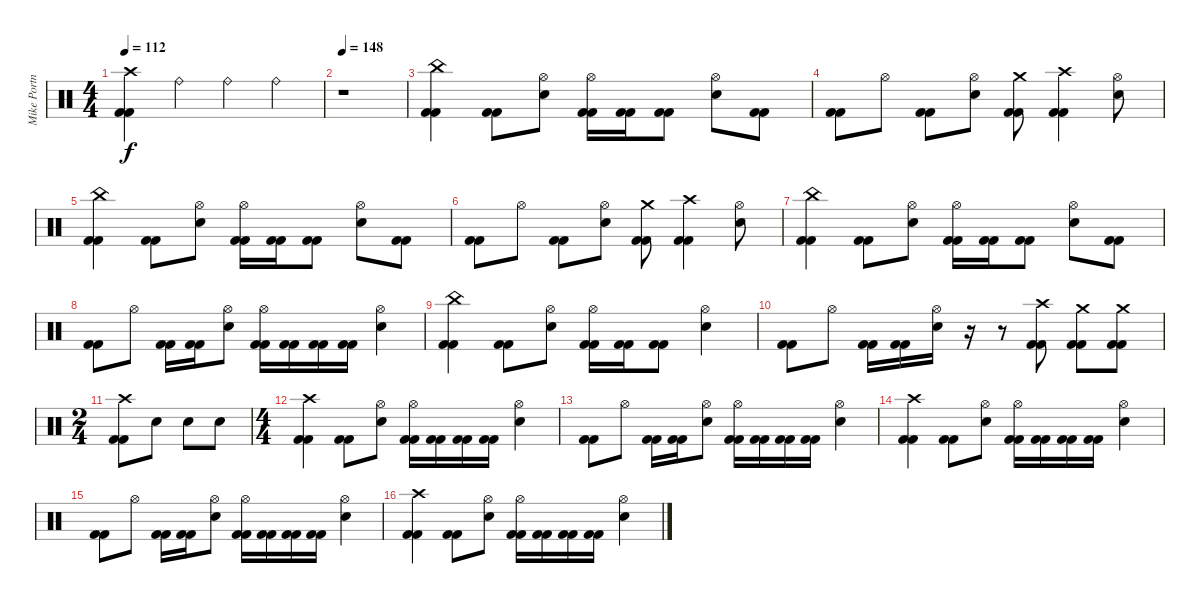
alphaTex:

\track ("Mike Portnoy - Drum" "Mike Portn") {instrument percussion}
\staff {score}
\articulation defaults
\ts (4 4)
\tempo 112
\clef neutral
\ks c
("Crash high (hit)" "Kick (hit) 2" "Kick (hit) 2").4{dy f} "Ride (bell)".4 "Ride (bell)".4 "Ride (bell)".4 |
\tempo 148
r.1 |
("China (hit)" "Kick (hit) 2" "Kick (hit) 2").4 ("Kick (hit) 2" "Kick (hit) 2").8 ("Hi-Hat (open)" "Snare (hit) 2").8 ("Hi-Hat (open)" "Kick (hit) 2" "Kick (hit) 2").16 ("Kick (hit) 2" "Kick (hit) 2").16 ("Kick (hit) 2" "Kick (hit) 2").8 ("Hi-Hat (open)" "Snare (hit) 2").8 ("Kick (hit) 2" "Kick (hit) 2").8 |
("Kick (hit) 2" "Kick (hit) 2").8 "Hi-Hat (open)".8 ("Kick (hit) 2" "Kick (hit) 2").8 ("Hi-Hat (open)" "Snare (hit) 2").8 ("Crash medium (hit)" "Kick (hit) 2" "Kick (hit) 2").8 ("Crash high (hit)" "Kick (hit) 2" "Kick (hit) 2").4 ("Hi-Hat (open)" "Snare (hit) 2").8 |
("China (hit)" "Kick (hit) 2" "Kick (hit) 2").4 ("Kick (hit) 2" "Kick (hit) 2").8 ("Hi-Hat (open)" "Snare (hit) 2").8 ("Hi-Hat (open)" "Kick (hit) 2" "Kick (hit) 2").16 ("Kick (hit) 2" "Kick (hit) 2").16 ("Kick (hit) 2" "Kick (hit) 2").8 ("Hi-Hat (open)" "Snare (hit) 2").8 ("Kick (hit) 2" "Kick (hit) 2").8 |
("Kick (hit) 2" "Kick (hit) 2").8 "Hi-Hat (open)".8 ("Kick (hit) 2" "Kick (hit) 2").8 ("Hi-Hat (open)" "Snare (hit) 2").8 ("Crash medium (hit)" "Kick (hit) 2" "Kick (hit) 2").8 ("Crash high (hit)" "Kick (hit) 2" "Kick (hit) 2").4 ("Hi-Hat (open)" "Snare (hit) 2").8 |
("China (hit)" "Kick (hit) 2" "Kick (hit) 2").4 ("Kick (hit) 2" "Kick (hit) 2").8 ("Hi-Hat (open)" "Snare (hit) 2").8 ("Hi-Hat (open)" "Kick (hit) 2" "Kick (hit) 2").16 ("Kick (hit) 2" "Kick (hit) 2").16 ("Kick (hit) 2" "Kick (hit) 2").8 ("Hi-Hat (open)" "Snare (hit) 2").8 ("Kick (hit) 2" "Kick (hit) 2").8 |
("Kick (hit) 2" "Kick (hit) 2").8 "Hi-Hat (open)".8 ("Kick (hit) 2" "Kick (hit) 2").16 ("Kick (hit) 2" "Kick (hit) 2").16 ("Hi-Hat (open)" "Snare (hit) 2").8 ("Hi-Hat (open)" "Kick (hit) 2" "Kick (hit) 2").16 ("Kick (hit) 2" "Kick (hit) 2").16 ("Kick (hit) 2" "Kick (hit) 2").16 ("Kick (hit) 2" "Kick (hit) 2").16 ("Hi-Hat (open)" "Snare (hit) 2").4 |
("China (hit)" "Kick (hit) 2" "Kick (hit) 2").4 ("Kick (hit) 2" "Kick (hit) 2").8 ("Hi-Hat (open)" "Snare (hit) 2").8 ("Hi-Hat (open)" "Kick (hit) 2" "Kick (hit) 2").16 ("Kick (hit) 2" "Kick (hit) 2").16 ("Kick (hit) 2" "Kick (hit) 2").8 ("Hi-Hat (open)" "Snare (hit) 2").4 |
("Kick (hit) 2" "Kick (hit) 2").8 "Hi-Hat (open)".8 ("Kick (hit) 2" "Kick (hit) 2").16 ("Kick (hit) 2" "Kick (hit) 2").16 ("Hi-Hat (open)" "Snare (hit) 2").16 r.16 r.8 ("Crash high (hit)" "Kick (hit) 2" "Kick (hit) 2").8 ("Crash medium (hit)" "Kick (hit) 2" "Kick (hit) 2").8 ("Crash medium (hit)" "Kick (hit) 2" "Kick (hit) 2").8 |
\ts (2 4)
("Crash high (hit)" "Kick (hit) 2" "Kick (hit) 2").8 "Snare (hit) 2".8 "Snare (hit) 2".8 "Snare (hit) 2".8 |
\ts (4 4)
("Crash high (hit)" "Kick (hit) 2" "Kick (hit) 2").4 ("Kick (hit) 2" "Kick (hit) 2").8 ("Hi-Hat (open)" "Snare (hit) 2").8 ("Hi-Hat (open)" "Kick (hit) 2" "Kick (hit) 2").16 ("Kick (hit) 2" "Kick (hit) 2").16 ("Kick (hit) 2" "Kick (hit) 2").16 ("Kick (hit) 2" "Kick (hit) 2").16 ("Hi-Hat (open)" "Snare (hit) 2").4 |
("Kick (hit) 2" "Kick (hit) 2").8 "Hi-Hat (open)".8 ("Kick (hit) 2" "Kick (hit) 2").16 ("Kick (hit) 2" "Kick (hit) 2").16 ("Hi-Hat (open)" "Snare (hit) 2").8 ("Hi-Hat (open)" "Kick (hit) 2" "Kick (hit) 2").16 ("Kick (hit) 2" "Kick (hit) 2").16 ("Kick (hit) 2" "Kick (hit) 2").16 ("Kick (hit) 2" "Kick (hit) 2").16 ("Hi-Hat (open)" "Snare (hit) 2").4 |
("Crash high (hit)" "Kick (hit) 2" "Kick (hit) 2").4 ("Kick (hit) 2" "Kick (hit) 2").8 ("Hi-Hat (open)" "Snare (hit) 2").8 ("Hi-Hat (open)" "Kick (hit) 2" "Kick (hit) 2").16 ("Kick (hit) 2" "Kick (hit) 2").16 ("Kick (hit) 2" "Kick (hit) 2").16 ("Kick (hit) 2" "Kick (hit) 2").16 ("Hi-Hat (open)" "Snare (hit) 2").4 |
("Kick (hit) 2" "Kick (hit) 2").8 "Hi-Hat (open)".8 ("Kick (hit) 2" "Kick (hit) 2").16 ("Kick (hit) 2" "Kick (hit) 2").16 ("Hi-Hat (open)" "Snare (hit) 2").8 ("Hi-Hat (open)" "Kick (hit) 2" "Kick (hit) 2").16 ("Kick (hit) 2" "Kick (hit) 2").16 ("Kick (hit) 2" "Kick (hit) 2").16 ("Kick (hit) 2" "Kick (hit) 2").16 ("Hi-Hat (open)" "Snare (hit) 2").4 |
("Crash high (hit)" "Kick (hit) 2" "Kick (hit) 2").4 ("Kick (hit) 2" "Kick (hit) 2").8 ("Hi-Hat (open)" "Snare (hit) 2").8 ("Hi-Hat (open)" "Kick (hit) 2" "Kick (hit) 2").16 ("Kick (hit) 2" "Kick (hit) 2").16 ("Kick (hit) 2" "Kick (hit) 2").16 ("Kick (hit) 2" "Kick (hit) 2").16 ("Hi-Hat (open)" "Snare (hit) 2").4
